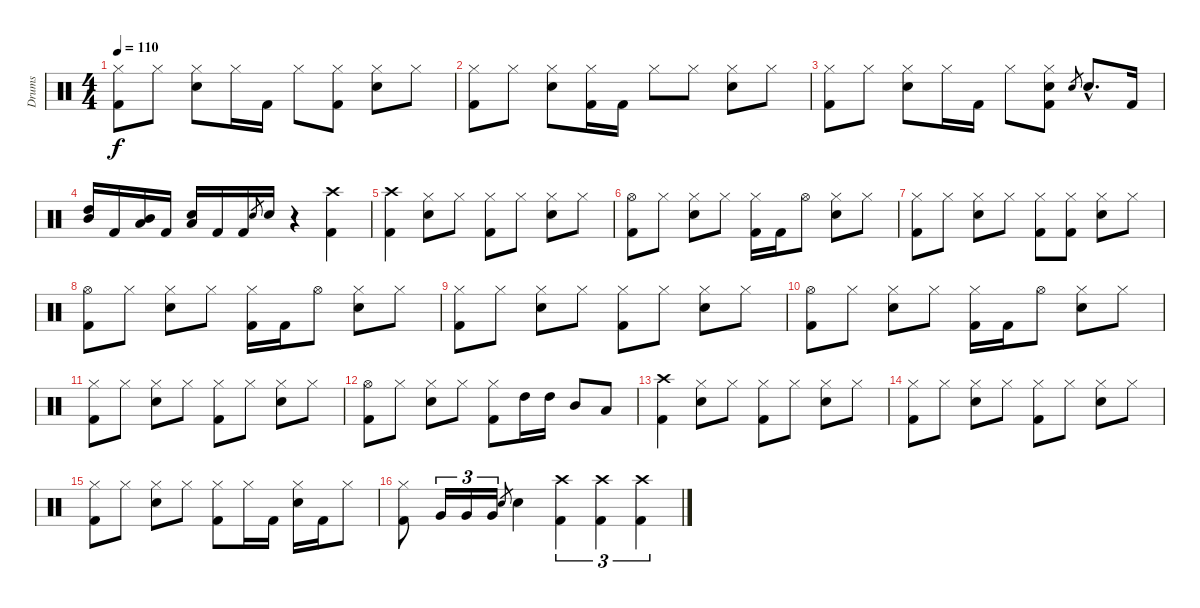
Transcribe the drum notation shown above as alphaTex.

\track ("Drums" "Drums") {instrument percussion}
\staff {score}
\articulation defaults
\ts (4 4)
\tempo 110
\clef neutral
\ks c
("Hi-Hat (closed)" "Kick (hit) 2").8{dy f} "Hi-Hat (closed)".8 ("Hi-Hat (closed)" "Electric Snare (hit)").8 "Hi-Hat (closed)".16 "Kick (hit) 2".16 "Hi-Hat (closed)".8 ("Hi-Hat (closed)" "Kick (hit) 2").8 ("Hi-Hat (closed)" "Electric Snare (hit)").8 "Hi-Hat (closed)".8 |
("Hi-Hat (closed)" "Kick (hit) 2").8 "Hi-Hat (closed)".8 ("Hi-Hat (closed)" "Electric Snare (hit)").8 ("Hi-Hat (closed)" "Kick (hit) 2").16 "Kick (hit) 2".16 "Hi-Hat (closed)".8 "Hi-Hat (closed)".8 ("Hi-Hat (closed)" "Electric Snare (hit)").8 "Hi-Hat (closed)".8 |
("Hi-Hat (closed)" "Kick (hit) 2").8 "Hi-Hat (closed)".8 ("Hi-Hat (closed)" "Electric Snare (hit)").8 "Hi-Hat (closed)".16 "Kick (hit) 2".16 "Hi-Hat (closed)".8 ("Hi-Hat (closed)" "Electric Snare (hit)" "Kick (hit) 2").8 "Electric Snare (hit)".8{gr} "Electric Snare (hit)"{hac}.8{d} "Kick (hit) 2".16 |
("High Tom (hit)" "Mid Tom (hit)").16 "Kick (hit) 2".16 ("Mid Tom (hit)" "Low Tom (hit)").16 "Kick (hit) 2".16 ("Electric Snare (hit)" "Low Tom (hit)").16 "Kick (hit) 2".16 "Kick (hit) 2".16 "Electric Snare (hit)".8{gr} "Electric Snare (hit)".16 r.4 ("Crash high (hit)" "Kick (hit) 2").4 |
("Crash high (hit)" "Kick (hit) 2").4 ("Hi-Hat (closed)" "Electric Snare (hit)").8 "Hi-Hat (closed)".8 ("Hi-Hat (closed)" "Kick (hit) 2").8 "Hi-Hat (closed)".8 ("Hi-Hat (closed)" "Electric Snare (hit)").8 "Hi-Hat (closed)".8 |
("Hi-Hat (open)" "Kick (hit) 2").8 "Hi-Hat (closed)".8 ("Hi-Hat (closed)" "Electric Snare (hit)").8 "Hi-Hat (closed)".8 ("Hi-Hat (closed)" "Kick (hit) 2").16 "Kick (hit) 2".16 "Hi-Hat (open)".8 ("Hi-Hat (closed)" "Electric Snare (hit)").8 "Hi-Hat (closed)".8 |
("Hi-Hat (closed)" "Kick (hit) 2").8 "Hi-Hat (closed)".8 ("Hi-Hat (closed)" "Electric Snare (hit)").8 "Hi-Hat (closed)".8 ("Hi-Hat (closed)" "Kick (hit) 2").8 ("Hi-Hat (closed)" "Kick (hit) 2").8 ("Hi-Hat (closed)" "Electric Snare (hit)").8 "Hi-Hat (closed)".8 |
("Hi-Hat (open)" "Kick (hit) 2").8 "Hi-Hat (closed)".8 ("Hi-Hat (closed)" "Electric Snare (hit)").8 "Hi-Hat (closed)".8 ("Hi-Hat (closed)" "Kick (hit) 2").16 "Kick (hit) 2".16 "Hi-Hat (open)".8 ("Hi-Hat (closed)" "Electric Snare (hit)").8 "Hi-Hat (closed)".8 |
("Hi-Hat (closed)" "Kick (hit) 2").8 "Hi-Hat (closed)".8 ("Hi-Hat (closed)" "Electric Snare (hit)").8 "Hi-Hat (closed)".8 ("Hi-Hat (closed)" "Kick (hit) 2").8 "Hi-Hat (closed)".8 ("Hi-Hat (closed)" "Electric Snare (hit)").8 "Hi-Hat (closed)".8 |
("Hi-Hat (open)" "Kick (hit) 2").8 "Hi-Hat (closed)".8 ("Hi-Hat (closed)" "Electric Snare (hit)").8 "Hi-Hat (closed)".8 ("Hi-Hat (closed)" "Kick (hit) 2").16 "Kick (hit) 2".16 "Hi-Hat (open)".8 ("Hi-Hat (closed)" "Electric Snare (hit)").8 "Hi-Hat (closed)".8 |
("Hi-Hat (closed)" "Kick (hit) 2").8 "Hi-Hat (closed)".8 ("Hi-Hat (closed)" "Electric Snare (hit)").8 "Hi-Hat (closed)".8 ("Hi-Hat (closed)" "Kick (hit) 2").8 "Hi-Hat (closed)".8 ("Hi-Hat (closed)" "Electric Snare (hit)").8 "Hi-Hat (closed)".8 |
("Hi-Hat (open)" "Kick (hit) 2").8 "Hi-Hat (closed)".8 ("Hi-Hat (closed)" "Electric Snare (hit)").8 "Hi-Hat (closed)".8 ("Hi-Hat (closed)" "Kick (hit) 2").8 "High Tom (hit)".16 "High Tom (hit)".16 "Mid Tom (hit)".8 "Low Tom (hit)".8 |
("Crash high (hit)" "Kick (hit) 2").4 ("Hi-Hat (closed)" "Electric Snare (hit)").8 "Hi-Hat (closed)".8 ("Hi-Hat (closed)" "Kick (hit) 2").8 "Hi-Hat (closed)".8 ("Hi-Hat (closed)" "Electric Snare (hit)").8 "Hi-Hat (closed)".8 |
("Hi-Hat (closed)" "Kick (hit) 2").8 "Hi-Hat (closed)".8 ("Hi-Hat (closed)" "Electric Snare (hit)").8 "Hi-Hat (closed)".8 ("Hi-Hat (closed)" "Kick (hit) 2").8 "Hi-Hat (closed)".8 ("Hi-Hat (closed)" "Electric Snare (hit)").8 "Hi-Hat (closed)".8 |
("Hi-Hat (closed)" "Kick (hit) 2").8 "Hi-Hat (closed)".8 ("Hi-Hat (closed)" "Electric Snare (hit)").8 "Hi-Hat (closed)".8 ("Hi-Hat (closed)" "Kick (hit) 2").8 "Hi-Hat (closed)".16 "Kick (hit) 2".16 ("Hi-Hat (closed)" "Electric Snare (hit)").16 "Kick (hit) 2".16 "Hi-Hat (closed)".8 |
("Hi-Hat (closed)" "Kick (hit) 2").8 "Very Low Tom (hit)".16{tu (3 2)} "Very Low Tom (hit)".16{tu (3 2)} "Very Low Tom (hit)".16{tu (3 2)} "Electric Snare (hit)".8{gr} "Electric Snare (hit)".4 ("Crash high (hit)" "Kick (hit) 2").4{tu (3 2)} ("Crash high (hit)" "Kick (hit) 2").4{tu (3 2)} ("Crash high (hit)" "Kick (hit) 2").4{tu (3 2)}
